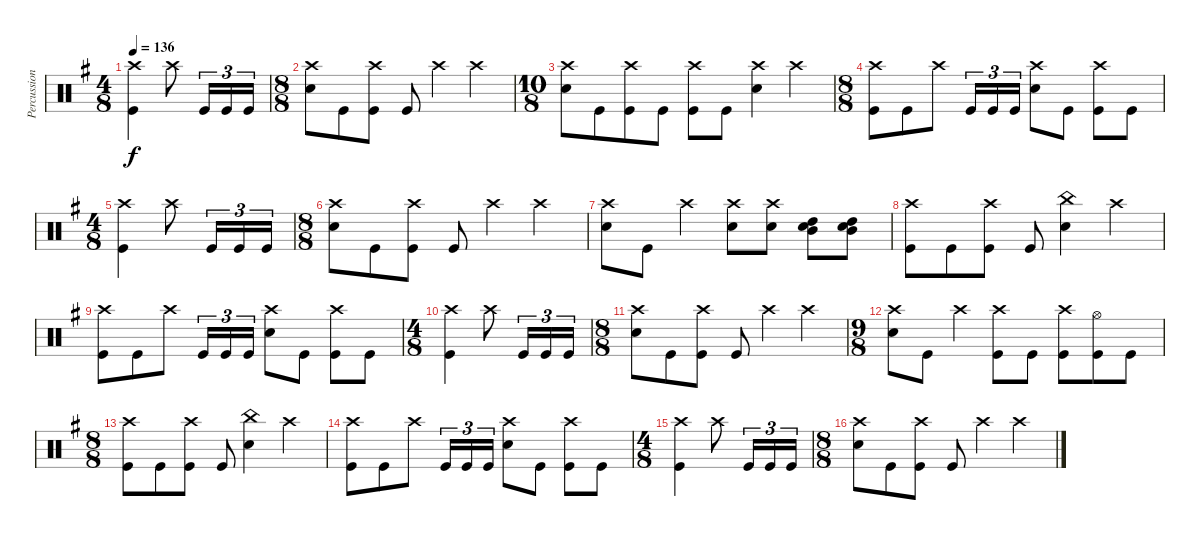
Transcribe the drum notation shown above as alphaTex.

\track ("Percussion" "Percussion") {instrument percussion}
\staff {score}
\articulation defaults
\ts (4 8)
\tempo 136
\clef neutral
\ks g
("Crash high (hit)" "Kick (hit)").4{dy f} "Crash high (hit)".8 "Kick (hit)".16{tu (3 2)} "Kick (hit)".16{tu (3 2)} "Kick (hit)".16{tu (3 2)} |
\ts (8 8)
("Crash high (hit)" "Electric Snare (hit)").8 "Kick (hit)".8 ("Crash high (hit)" "Kick (hit)").8 "Kick (hit)".8 "Crash high (hit)".4 "Crash high (hit)".4 |
\ts (10 8)
("Crash high (hit)" "Electric Snare (hit)").8 "Kick (hit)".8 ("Crash high (hit)" "Kick (hit)").8 "Kick (hit)".8 ("Crash high (hit)" "Kick (hit)").8 "Kick (hit)".8 ("Crash high (hit)" "Electric Snare (hit)").4 "Crash high (hit)".4 |
\ts (8 8)
("Crash high (hit)" "Kick (hit)").8 "Kick (hit)".8 "Crash high (hit)".8 "Kick (hit)".16{tu (3 2)} "Kick (hit)".16{tu (3 2)} "Kick (hit)".16{tu (3 2)} ("Crash high (hit)" "Electric Snare (hit)").8 "Kick (hit)".8 ("Crash high (hit)" "Kick (hit)").8 "Kick (hit)".8 |
\ts (4 8)
("Crash high (hit)" "Kick (hit)").4 "Crash high (hit)".8 "Kick (hit)".16{tu (3 2)} "Kick (hit)".16{tu (3 2)} "Kick (hit)".16{tu (3 2)} |
\ts (8 8)
("Crash high (hit)" "Electric Snare (hit)").8 "Kick (hit)".8 ("Crash high (hit)" "Kick (hit)").8 "Kick (hit)".8 "Crash high (hit)".4 "Crash high (hit)".4 |
("Crash high (hit)" "Electric Snare (hit)").8 "Kick (hit)".8 "Crash high (hit)".4 ("Crash high (hit)" "Electric Snare (hit)").8 ("Crash high (hit)" "Electric Snare (hit)").8 ("Mid Tom (hit)" "High Tom (hit)" "Electric Snare (hit)").8 ("Mid Tom (hit)" "High Tom (hit)" "Electric Snare (hit)").8 |
("Crash high (hit)" "Kick (hit)").8 "Kick (hit)".8 ("Crash high (hit)" "Kick (hit)").8 "Kick (hit)".8 ("China (hit)" "Electric Snare (hit)").4 "Crash high (hit)".4 |
("Crash high (hit)" "Kick (hit)").8 "Kick (hit)".8 "Crash high (hit)".8 "Kick (hit)".16{tu (3 2)} "Kick (hit)".16{tu (3 2)} "Kick (hit)".16{tu (3 2)} ("Crash high (hit)" "Electric Snare (hit)").8 "Kick (hit)".8 ("Crash high (hit)" "Kick (hit)").8 "Kick (hit)".8 |
\ts (4 8)
("Crash high (hit)" "Kick (hit)").4 "Crash high (hit)".8 "Kick (hit)".16{tu (3 2)} "Kick (hit)".16{tu (3 2)} "Kick (hit)".16{tu (3 2)} |
\ts (8 8)
("Crash high (hit)" "Electric Snare (hit)").8 "Kick (hit)".8 ("Crash high (hit)" "Kick (hit)").8 "Kick (hit)".8 "Crash high (hit)".4 "Crash high (hit)".4 |
\ts (9 8)
("Crash high (hit)" "Electric Snare (hit)").8 "Kick (hit)".8 "Crash high (hit)".4 ("Crash high (hit)" "Kick (hit)").8 "Kick (hit)".8 ("Crash high (hit)" "Kick (hit)").8 ("Hi-Hat (open)" "Kick (hit)").8 "Kick (hit)".8 |
\ts (8 8)
("Crash high (hit)" "Kick (hit)").8 "Kick (hit)".8 ("Crash high (hit)" "Kick (hit)").8 "Kick (hit)".8 ("China (hit)" "Electric Snare (hit)").4 "Crash high (hit)".4 |
("Crash high (hit)" "Kick (hit)").8 "Kick (hit)".8 "Crash high (hit)".8 "Kick (hit)".16{tu (3 2)} "Kick (hit)".16{tu (3 2)} "Kick (hit)".16{tu (3 2)} ("Crash high (hit)" "Electric Snare (hit)").8 "Kick (hit)".8 ("Crash high (hit)" "Kick (hit)").8 "Kick (hit)".8 |
\ts (4 8)
("Crash high (hit)" "Kick (hit)").4 "Crash high (hit)".8 "Kick (hit)".16{tu (3 2)} "Kick (hit)".16{tu (3 2)} "Kick (hit)".16{tu (3 2)} |
\ts (8 8)
("Crash high (hit)" "Electric Snare (hit)").8 "Kick (hit)".8 ("Crash high (hit)" "Kick (hit)").8 "Kick (hit)".8 "Crash high (hit)".4 "Crash high (hit)".4
